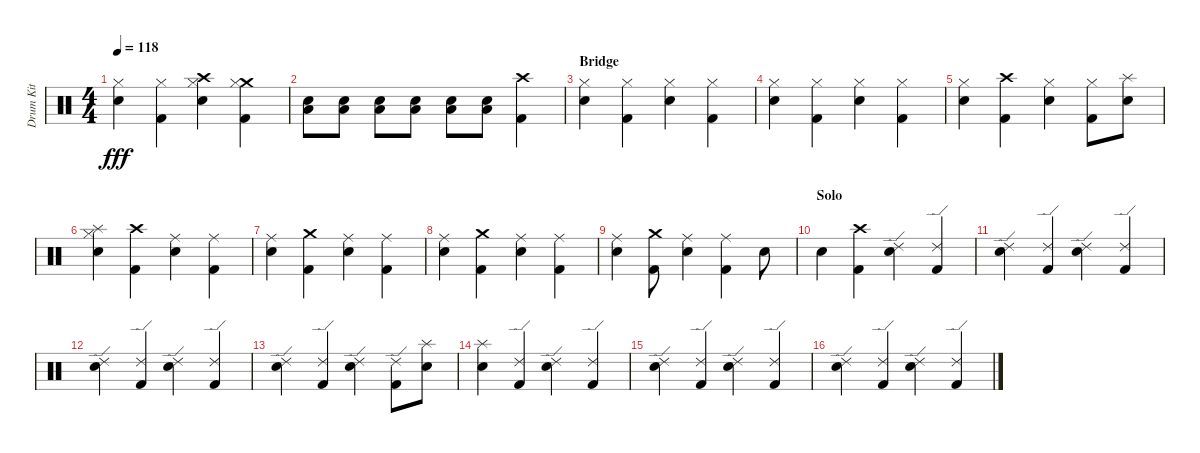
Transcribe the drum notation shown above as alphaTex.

\track ("Drum Kit" "Drum Kit") {instrument percussion}
\staff {score}
\articulation defaults
\ts (4 4)
\tempo 118
\clef neutral
\ks c
("Hi-Hat (closed)" "Electric Snare (hit)").4{dy fff} ("Kick (hit) 2" "Hi-Hat (closed)").4 ("Crash high (hit)" "Electric Snare (hit)" "Hi-Hat (closed)").4 ("Crash medium (hit)" "Kick (hit) 2" "Hi-Hat (closed)").4 |
("Low Floor Tom (hit)" "Snare (hit) 2").8 ("Snare (hit) 2" "Low Floor Tom (hit)").8 ("Low Floor Tom (hit)" "Snare (hit) 2").8 ("Snare (hit) 2" "Low Floor Tom (hit)").8 ("Snare (hit) 2" "Low Floor Tom (hit)").8 ("Snare (hit) 2" "Low Floor Tom (hit)").8 ("Crash high (hit)" "Kick (hit) 2").4 |
\section ("" "Bridge")
("Electric Snare (hit)" "Hi-Hat (closed)").4 ("Hi-Hat (closed)" "Kick (hit) 2").4 ("Hi-Hat (closed)" "Electric Snare (hit)").4 ("Kick (hit) 2" "Hi-Hat (closed)").4 |
("Electric Snare (hit)" "Hi-Hat (closed)").4 ("Kick (hit) 2" "Hi-Hat (closed)").4 ("Electric Snare (hit)" "Hi-Hat (closed)").4 ("Hi-Hat (closed)" "Kick (hit) 2").4 |
("Electric Snare (hit)" "Hi-Hat (closed)").4 ("Crash high (hit)" "Kick (hit) 2").4 ("Hi-Hat (closed)" "Electric Snare (hit)").4 ("Kick (hit) 2" "Hi-Hat (closed)").8 ("Splash (hit)" "Electric Snare (hit)").8 |
("Splash (hit)" "Hi-Hat (closed)" "Electric Snare (hit)").4 ("Kick (hit) 2" "Crash high (hit)").4 ("Electric Snare (hit)" "Ride (middle)").4 ("Kick (hit) 2" "Ride (middle)").4 |
("Ride (middle)" "Electric Snare (hit)").4 ("Kick (hit) 2" "Crash medium (hit)").4 ("Electric Snare (hit)" "Ride (middle)").4 ("Kick (hit) 2" "Ride (middle)").4 |
("Ride (middle)" "Electric Snare (hit)").4 ("Kick (hit) 2" "Crash medium (hit)").4 ("Electric Snare (hit)" "Ride (middle)").4 ("Kick (hit) 2" "Ride (middle)").4 |
("Electric Snare (hit)" "Ride (middle)").4 ("Kick (hit) 2" "Crash medium (hit)").8 ("Electric Snare (hit)" "Ride (middle)").4 ("Kick (hit) 2" "Ride (middle)").4 "Electric Snare (hit)".8 |
\section ("" "Solo")
"Electric Snare (hit)".4 ("Kick (hit) 2" "Crash high (hit)").4 ("Electric Snare (hit)" "Ride (edge) 2").4 ("Ride (edge) 2" "Kick (hit) 2").4 |
("Ride (edge) 2" "Electric Snare (hit)").4 ("Kick (hit) 2" "Ride (edge) 2").4 ("Electric Snare (hit)" "Ride (edge) 2").4 ("Ride (edge) 2" "Kick (hit) 2").4 |
("Electric Snare (hit)" "Ride (edge) 2").4 ("Ride (edge) 2" "Kick (hit) 2").4 ("Ride (edge) 2" "Electric Snare (hit)").4 ("Kick (hit) 2" "Ride (edge) 2").4 |
("Ride (edge) 2" "Electric Snare (hit)").4 ("Ride (edge) 2" "Kick (hit) 2").4 ("Ride (edge) 2" "Electric Snare (hit)").4 ("Ride (edge) 2" "Kick (hit) 2").8 ("Splash (hit)" "Electric Snare (hit)").8 |
("Splash (hit)" "Electric Snare (hit)").4 ("Kick (hit) 2" "Ride (edge) 2").4 ("Electric Snare (hit)" "Ride (edge) 2").4 ("Ride (edge) 2" "Kick (hit) 2").4 |
("Electric Snare (hit)" "Ride (edge) 2").4 ("Kick (hit) 2" "Ride (edge) 2").4 ("Electric Snare (hit)" "Ride (edge) 2").4 ("Ride (edge) 2" "Kick (hit) 2").4 |
("Electric Snare (hit)" "Ride (edge) 2").4 ("Kick (hit) 2" "Ride (edge) 2").4 ("Ride (edge) 2" "Electric Snare (hit)").4 ("Ride (edge) 2" "Kick (hit) 2").4
